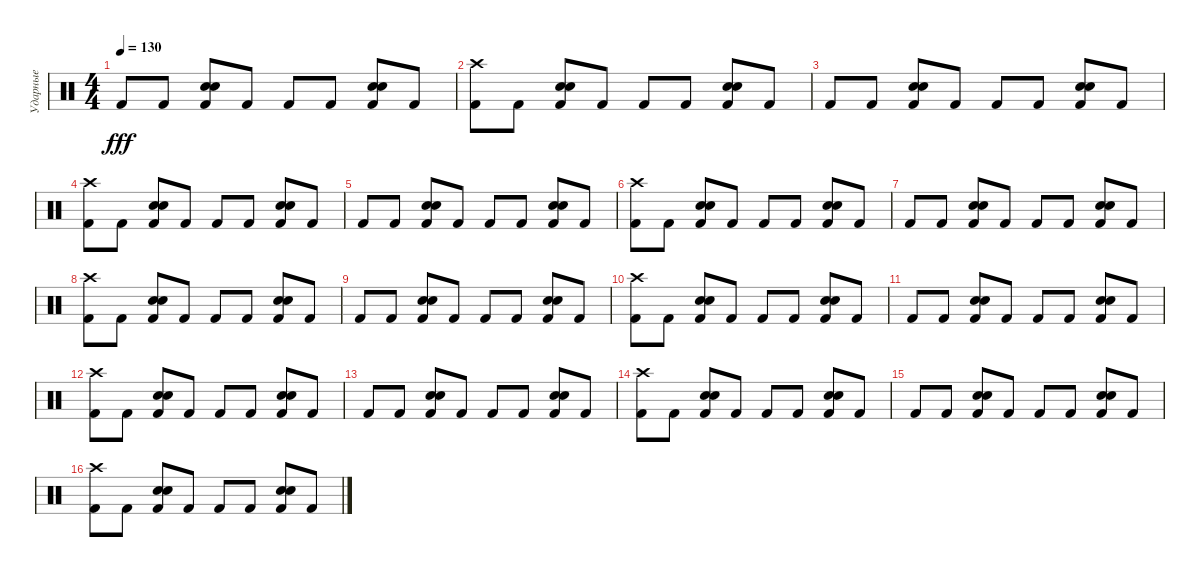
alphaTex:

\track ("Ударные" "Ударные") {instrument percussion}
\staff {score}
\articulation defaults
\ts (4 4)
\tempo 130
\clef neutral
\ks c "Kick (hit) 2".8{dy fff} "Kick (hit) 2".8
("Snare (hit) 2" "Snare (hit) 2" "Kick (hit) 2").8 "Kick (hit) 2".8 "Kick (hit) 2".8 "Kick (hit) 2".8 ("Snare (hit) 2" "Snare (hit) 2" "Kick (hit) 2").8 "Kick (hit) 2".8 |
("Crash high (hit)" "Kick (hit) 2").8 "Kick (hit) 2".8 ("Snare (hit) 2" "Snare (hit) 2" "Kick (hit) 2").8 "Kick (hit) 2".8 "Kick (hit) 2".8 "Kick (hit) 2".8 ("Snare (hit) 2" "Snare (hit) 2" "Kick (hit) 2").8 "Kick (hit) 2".8 |
"Kick (hit) 2".8 "Kick (hit) 2".8 ("Snare (hit) 2" "Snare (hit) 2" "Kick (hit) 2").8 "Kick (hit) 2".8 "Kick (hit) 2".8 "Kick (hit) 2".8 ("Snare (hit) 2" "Snare (hit) 2" "Kick (hit) 2").8 "Kick (hit) 2".8 |
("Crash high (hit)" "Kick (hit) 2").8 "Kick (hit) 2".8 ("Snare (hit) 2" "Snare (hit) 2" "Kick (hit) 2").8 "Kick (hit) 2".8 "Kick (hit) 2".8 "Kick (hit) 2".8 ("Snare (hit) 2" "Snare (hit) 2" "Kick (hit) 2").8 "Kick (hit) 2".8 |
"Kick (hit) 2".8 "Kick (hit) 2".8 ("Snare (hit) 2" "Snare (hit) 2" "Kick (hit) 2").8 "Kick (hit) 2".8 "Kick (hit) 2".8 "Kick (hit) 2".8 ("Snare (hit) 2" "Snare (hit) 2" "Kick (hit) 2").8 "Kick (hit) 2".8 |
("Crash high (hit)" "Kick (hit) 2").8 "Kick (hit) 2".8 ("Snare (hit) 2" "Snare (hit) 2" "Kick (hit) 2").8 "Kick (hit) 2".8 "Kick (hit) 2".8 "Kick (hit) 2".8 ("Snare (hit) 2" "Snare (hit) 2" "Kick (hit) 2").8 "Kick (hit) 2".8 |
"Kick (hit) 2".8 "Kick (hit) 2".8 ("Snare (hit) 2" "Snare (hit) 2" "Kick (hit) 2").8 "Kick (hit) 2".8 "Kick (hit) 2".8 "Kick (hit) 2".8 ("Snare (hit) 2" "Snare (hit) 2" "Kick (hit) 2").8 "Kick (hit) 2".8 |
("Crash high (hit)" "Kick (hit) 2").8 "Kick (hit) 2".8 ("Snare (hit) 2" "Snare (hit) 2" "Kick (hit) 2").8 "Kick (hit) 2".8 "Kick (hit) 2".8 "Kick (hit) 2".8 ("Snare (hit) 2" "Snare (hit) 2" "Kick (hit) 2").8 "Kick (hit) 2".8 |
"Kick (hit) 2".8 "Kick (hit) 2".8 ("Snare (hit) 2" "Snare (hit) 2" "Kick (hit) 2").8 "Kick (hit) 2".8 "Kick (hit) 2".8 "Kick (hit) 2".8 ("Snare (hit) 2" "Snare (hit) 2" "Kick (hit) 2").8 "Kick (hit) 2".8 |
("Crash high (hit)" "Kick (hit) 2").8 "Kick (hit) 2".8 ("Snare (hit) 2" "Snare (hit) 2" "Kick (hit) 2").8 "Kick (hit) 2".8 "Kick (hit) 2".8 "Kick (hit) 2".8 ("Snare (hit) 2" "Snare (hit) 2" "Kick (hit) 2").8 "Kick (hit) 2".8 |
"Kick (hit) 2".8 "Kick (hit) 2".8 ("Snare (hit) 2" "Snare (hit) 2" "Kick (hit) 2").8 "Kick (hit) 2".8 "Kick (hit) 2".8 "Kick (hit) 2".8 ("Snare (hit) 2" "Snare (hit) 2" "Kick (hit) 2").8 "Kick (hit) 2".8 |
("Crash high (hit)" "Kick (hit) 2").8 "Kick (hit) 2".8 ("Snare (hit) 2" "Snare (hit) 2" "Kick (hit) 2").8 "Kick (hit) 2".8 "Kick (hit) 2".8 "Kick (hit) 2".8 ("Snare (hit) 2" "Snare (hit) 2" "Kick (hit) 2").8 "Kick (hit) 2".8 |
"Kick (hit) 2".8 "Kick (hit) 2".8 ("Snare (hit) 2" "Snare (hit) 2" "Kick (hit) 2").8 "Kick (hit) 2".8 "Kick (hit) 2".8 "Kick (hit) 2".8 ("Snare (hit) 2" "Snare (hit) 2" "Kick (hit) 2").8 "Kick (hit) 2".8 |
("Crash high (hit)" "Kick (hit) 2").8 "Kick (hit) 2".8 ("Snare (hit) 2" "Snare (hit) 2" "Kick (hit) 2").8 "Kick (hit) 2".8 "Kick (hit) 2".8 "Kick (hit) 2".8 ("Snare (hit) 2" "Snare (hit) 2" "Kick (hit) 2").8 "Kick (hit) 2".8 |
"Kick (hit) 2".8 "Kick (hit) 2".8 ("Snare (hit) 2" "Snare (hit) 2" "Kick (hit) 2").8 "Kick (hit) 2".8 "Kick (hit) 2".8 "Kick (hit) 2".8 ("Snare (hit) 2" "Snare (hit) 2" "Kick (hit) 2").8 "Kick (hit) 2".8 |
("Crash high (hit)" "Kick (hit) 2").8 "Kick (hit) 2".8 ("Snare (hit) 2" "Snare (hit) 2" "Kick (hit) 2").8 "Kick (hit) 2".8 "Kick (hit) 2".8 "Kick (hit) 2".8 ("Snare (hit) 2" "Snare (hit) 2" "Kick (hit) 2").8 "Kick (hit) 2".8
